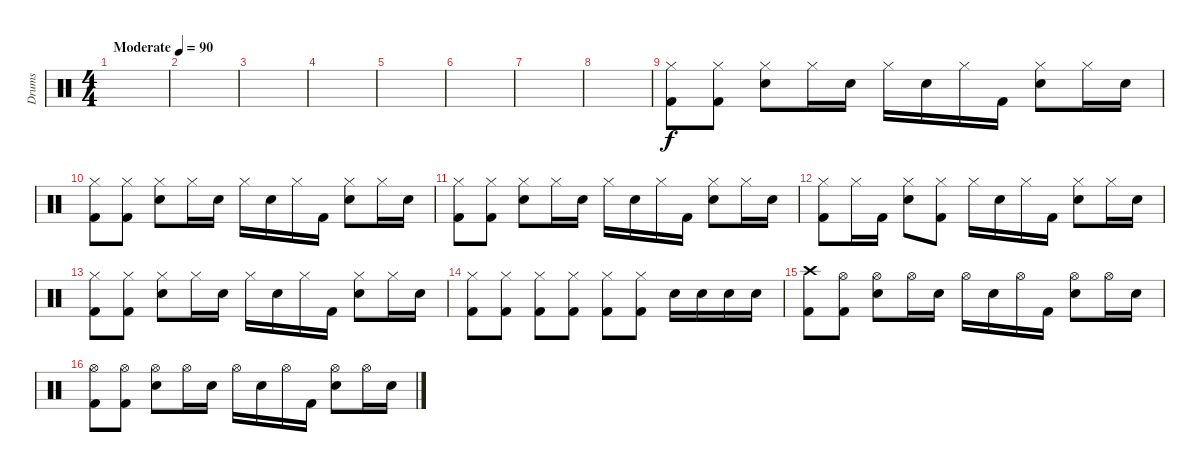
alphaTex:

\track ("Drums" "Drums") {instrument percussion}
\staff {score}
\articulation defaults
\ts (4 4)
\tempo (90 "Moderate")
\clef neutral
\ks c
|
|
|
|
|
|
|
|
("Kick (hit) 2" "Hi-Hat (closed)").8 ("Kick (hit) 2" "Hi-Hat (closed)").8 ("Snare (hit) 2" "Hi-Hat (closed)").8 "Hi-Hat (closed)".16 "Snare (hit) 2".16 "Hi-Hat (closed)".16 "Snare (hit) 2".16 "Hi-Hat (closed)".16 "Kick (hit) 2".16 ("Snare (hit) 2" "Hi-Hat (closed)").8 "Hi-Hat (closed)".16 "Snare (hit) 2".16 |
("Kick (hit) 2" "Hi-Hat (closed)").8 ("Kick (hit) 2" "Hi-Hat (closed)").8 ("Snare (hit) 2" "Hi-Hat (closed)").8 "Hi-Hat (closed)".16 "Snare (hit) 2".16 "Hi-Hat (closed)".16 "Snare (hit) 2".16 "Hi-Hat (closed)".16 "Kick (hit) 2".16 ("Snare (hit) 2" "Hi-Hat (closed)").8 "Hi-Hat (closed)".16 "Snare (hit) 2".16 |
("Kick (hit) 2" "Hi-Hat (closed)").8 ("Kick (hit) 2" "Hi-Hat (closed)").8 ("Snare (hit) 2" "Hi-Hat (closed)").8 "Hi-Hat (closed)".16 "Snare (hit) 2".16 "Hi-Hat (closed)".16 "Snare (hit) 2".16 "Hi-Hat (closed)".16 "Kick (hit) 2".16 ("Snare (hit) 2" "Hi-Hat (closed)").8 "Hi-Hat (closed)".16 "Snare (hit) 2".16 |
("Kick (hit) 2" "Hi-Hat (closed)").8 "Hi-Hat (closed)".16 "Kick (hit) 2".16 ("Snare (hit) 2" "Hi-Hat (closed)").8 ("Kick (hit) 2" "Hi-Hat (closed)").8 "Hi-Hat (closed)".16 "Snare (hit) 2".16 "Hi-Hat (closed)".16 "Kick (hit) 2".16 ("Snare (hit) 2" "Hi-Hat (closed)").8 "Hi-Hat (closed)".16 "Snare (hit) 2".16 |
("Kick (hit) 2" "Hi-Hat (closed)").8 ("Kick (hit) 2" "Hi-Hat (closed)").8 ("Snare (hit) 2" "Hi-Hat (closed)").8 "Hi-Hat (closed)".16 "Snare (hit) 2".16 "Hi-Hat (closed)".16 "Snare (hit) 2".16 "Hi-Hat (closed)".16 "Kick (hit) 2".16 ("Snare (hit) 2" "Hi-Hat (closed)").8 "Hi-Hat (closed)".16 "Snare (hit) 2".16 |
("Kick (hit) 2" "Hi-Hat (closed)").8 ("Kick (hit) 2" "Hi-Hat (closed)").8 ("Kick (hit) 2" "Hi-Hat (closed)").8 ("Kick (hit) 2" "Hi-Hat (closed)").8 ("Kick (hit) 2" "Hi-Hat (closed)").8 ("Kick (hit) 2" "Hi-Hat (closed)").8 "Snare (hit) 2".16 "Snare (hit) 2".16 "Snare (hit) 2".16 "Snare (hit) 2".16 |
("Kick (hit) 2" "Crash high (hit)").8 ("Kick (hit) 2" "Hi-Hat (open)").8 ("Snare (hit) 2" "Hi-Hat (open)").8 "Hi-Hat (open)".16 "Snare (hit) 2".16 "Hi-Hat (open)".16 "Snare (hit) 2".16 "Hi-Hat (open)".16 "Kick (hit) 2".16 ("Snare (hit) 2" "Hi-Hat (open)").8 "Hi-Hat (open)".16 "Snare (hit) 2".16 |
("Kick (hit) 2" "Hi-Hat (open)").8 ("Kick (hit) 2" "Hi-Hat (open)").8 ("Snare (hit) 2" "Hi-Hat (open)").8 "Hi-Hat (open)".16 "Snare (hit) 2".16 "Hi-Hat (open)".16 "Snare (hit) 2".16 "Hi-Hat (open)".16 "Kick (hit) 2".16 ("Snare (hit) 2" "Hi-Hat (open)").8 "Hi-Hat (open)".16 "Snare (hit) 2".16
